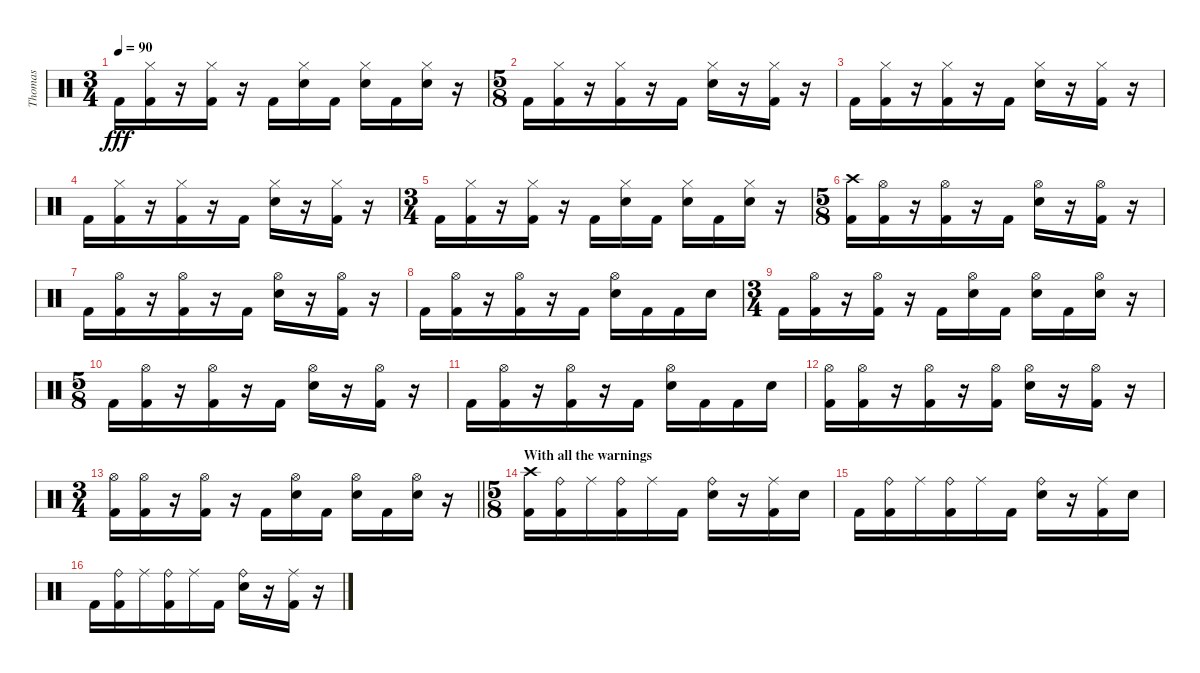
\track ("Thomas " "Thomas ") {instrument percussion}
\staff {score}
\articulation defaults
\ts (3 4)
\tempo 90
\clef neutral
\ks c "Kick (hit) 2".16{dy fff}
("Hi-Hat (closed)" "Kick (hit) 2").16 r.16 ("Hi-Hat (closed)" "Kick (hit) 2").16 r.16 "Kick (hit) 2".16 ("Hi-Hat (closed)" "Electric Snare (hit)").16 "Kick (hit) 2".16 ("Hi-Hat (closed)" "Electric Snare (hit)").16 "Kick (hit) 2".16 ("Hi-Hat (closed)" "Electric Snare (hit)").16 r.16 |
\ts (5 8)
"Kick (hit) 2".16 ("Hi-Hat (closed)" "Kick (hit) 2").16 r.16 ("Hi-Hat (closed)" "Kick (hit) 2").16 r.16 "Kick (hit) 2".16 ("Hi-Hat (closed)" "Electric Snare (hit)").16 r.16 ("Hi-Hat (closed)" "Kick (hit) 2").16 r.16 |
"Kick (hit) 2".16 ("Hi-Hat (closed)" "Kick (hit) 2").16 r.16 ("Hi-Hat (closed)" "Kick (hit) 2").16 r.16 "Kick (hit) 2".16 ("Hi-Hat (closed)" "Electric Snare (hit)").16 r.16 ("Hi-Hat (closed)" "Kick (hit) 2").16 r.16 |
"Kick (hit) 2".16 ("Hi-Hat (closed)" "Kick (hit) 2").16 r.16 ("Hi-Hat (closed)" "Kick (hit) 2").16 r.16 "Kick (hit) 2".16 ("Hi-Hat (closed)" "Electric Snare (hit)").16 r.16 ("Hi-Hat (closed)" "Kick (hit) 2").16 r.16 |
\ts (3 4)
"Kick (hit) 2".16 ("Hi-Hat (closed)" "Kick (hit) 2").16 r.16 ("Hi-Hat (closed)" "Kick (hit) 2").16 r.16 "Kick (hit) 2".16 ("Hi-Hat (closed)" "Electric Snare (hit)").16 "Kick (hit) 2".16 ("Hi-Hat (closed)" "Electric Snare (hit)").16 "Kick (hit) 2".16 ("Hi-Hat (closed)" "Electric Snare (hit)").16 r.16 |
\ts (5 8)
("Crash high (hit)" "Kick (hit) 2").16 ("Hi-Hat (open)" "Kick (hit) 2").16 r.16 ("Hi-Hat (open)" "Kick (hit) 2").16 r.16 "Kick (hit) 2".16 ("Hi-Hat (open)" "Electric Snare (hit)").16 r.16 ("Hi-Hat (open)" "Kick (hit) 2").16 r.16 |
"Kick (hit) 2".16 ("Hi-Hat (open)" "Kick (hit) 2").16 r.16 ("Hi-Hat (open)" "Kick (hit) 2").16 r.16 "Kick (hit) 2".16 ("Hi-Hat (open)" "Electric Snare (hit)").16 r.16 ("Hi-Hat (open)" "Kick (hit) 2").16 r.16 |
"Kick (hit) 2".16 ("Hi-Hat (open)" "Kick (hit) 2").16 r.16 ("Hi-Hat (open)" "Kick (hit) 2").16 r.16 "Kick (hit) 2".16 ("Hi-Hat (open)" "Electric Snare (hit)").16 "Kick (hit) 2".16 "Kick (hit) 2".16 "Electric Snare (hit)".16 |
\ts (3 4)
"Kick (hit) 2".16 ("Hi-Hat (open)" "Kick (hit) 2").16 r.16 ("Hi-Hat (open)" "Kick (hit) 2").16 r.16 "Kick (hit) 2".16 ("Hi-Hat (open)" "Electric Snare (hit)").16 "Kick (hit) 2".16 ("Hi-Hat (open)" "Electric Snare (hit)").16 "Kick (hit) 2".16 ("Hi-Hat (open)" "Electric Snare (hit)").16 r.16 |
\ts (5 8)
"Kick (hit) 2".16 ("Hi-Hat (open)" "Kick (hit) 2").16 r.16 ("Hi-Hat (open)" "Kick (hit) 2").16 r.16 "Kick (hit) 2".16 ("Hi-Hat (open)" "Electric Snare (hit)").16 r.16 ("Hi-Hat (open)" "Kick (hit) 2").16 r.16 |
"Kick (hit) 2".16 ("Hi-Hat (open)" "Kick (hit) 2").16 r.16 ("Hi-Hat (open)" "Kick (hit) 2").16 r.16 "Kick (hit) 2".16 ("Hi-Hat (open)" "Electric Snare (hit)").16 "Kick (hit) 2".16 "Kick (hit) 2".16 "Electric Snare (hit)".16 |
("Hi-Hat (open)" "Kick (hit) 2").16 ("Hi-Hat (open)" "Kick (hit) 2").16 r.16 ("Hi-Hat (open)" "Kick (hit) 2").16 r.16 ("Hi-Hat (open)" "Kick (hit) 2").16 ("Hi-Hat (open)" "Electric Snare (hit)").16 r.16 ("Hi-Hat (open)" "Kick (hit) 2").16 r.16 |
\ts (3 4)
\barLineRight lightlight
("Hi-Hat (open)" "Kick (hit) 2").16 ("Hi-Hat (open)" "Kick (hit) 2").16 r.16 ("Hi-Hat (open)" "Kick (hit) 2").16 r.16 "Kick (hit) 2".16 ("Hi-Hat (open)" "Electric Snare (hit)").16 "Kick (hit) 2".16 ("Hi-Hat (open)" "Electric Snare (hit)").16 "Kick (hit) 2".16 ("Hi-Hat (open)" "Electric Snare (hit)").16 r.16 |
\ts (5 8)
\section ("" "With all the warnings")
("Crash high (hit)" "Kick (hit) 2").16 ("Ride (bell)" "Kick (hit) 2").16 "Ride (middle)".16 ("Ride (bell)" "Kick (hit) 2").16 "Ride (middle)".16 "Kick (hit) 2".16 ("Ride (bell)" "Electric Snare (hit)").16 r.16 ("Ride (middle)" "Kick (hit) 2").16 "Electric Snare (hit)".16 |
"Kick (hit) 2".16 ("Ride (bell)" "Kick (hit) 2").16 "Ride (middle)".16 ("Ride (bell)" "Kick (hit) 2").16 "Ride (middle)".16 "Kick (hit) 2".16 ("Ride (bell)" "Electric Snare (hit)").16 r.16 ("Ride (middle)" "Kick (hit) 2").16 "Electric Snare (hit)".16 |
"Kick (hit) 2".16 ("Ride (bell)" "Kick (hit) 2").16 "Ride (middle)".16 ("Ride (bell)" "Kick (hit) 2").16 "Ride (middle)".16 "Kick (hit) 2".16 ("Ride (bell)" "Electric Snare (hit)").16 r.16 ("Ride (middle)" "Kick (hit) 2").16 r.16
